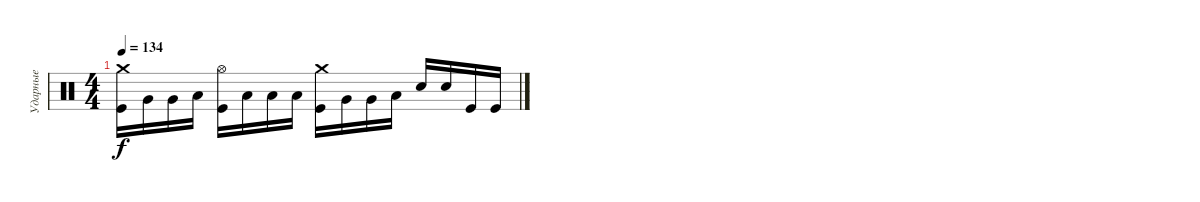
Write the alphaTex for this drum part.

\track ("Ударные" "Ударные") {instrument percussion}
\staff {score}
\articulation defaults
\ts (4 4)
\tempo 134
\clef neutral
\ks c
("Crash medium (hit)" "Kick (hit)").16{dy f} "Very Low Tom (hit)".16 "Very Low Tom (hit)".16 "Low Floor Tom (hit)".16 ("Hi-Hat (open)" "Kick (hit)").16 "Low Tom (hit)".16 "Low Tom (hit)".16 "Low Tom (hit)".16 ("Crash medium (hit)" "Kick (hit)").16 "Very Low Tom (hit)".16 "Very Low Tom (hit)".16 "Low Floor Tom (hit)".16 "Electric Snare (hit)".16 "Electric Snare (hit)".16 "Kick (hit)".16 "Kick (hit)".16
